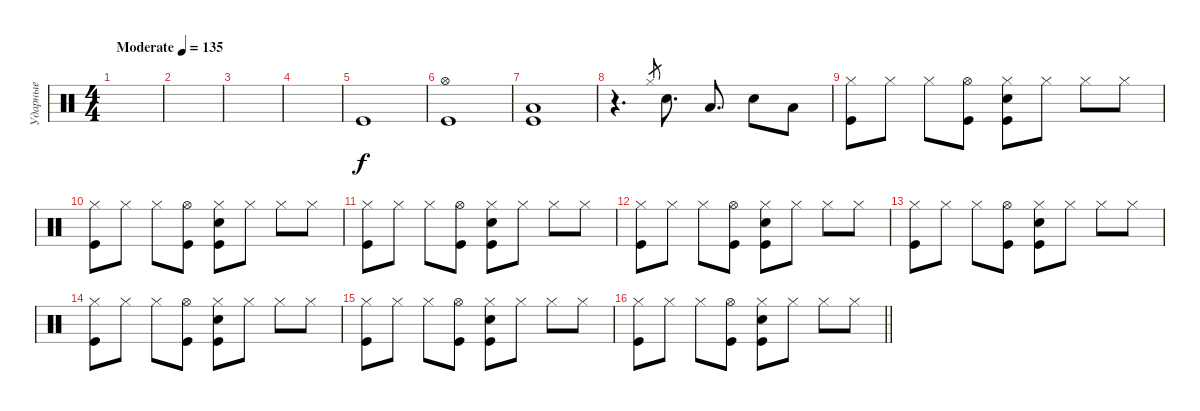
\track ("Ударные" "Ударные") {instrument percussion}
\staff {score}
\articulation defaults
\ts (4 4)
\tempo (135 "Moderate")
\clef neutral
\ks c
|
|
|
|
"Kick (hit)".1 |
("Hi-Hat (open)" "Kick (hit)").1 |
("Low Tom (hit)" "Kick (hit)").1 |
r.4{d} "Hi-Hat (closed)"{h}.8{gr} "Snare (hit) 2".8{d} "Low Tom (hit)".8{d} "Snare (hit) 2".8 "Low Tom (hit)".8 |
("Hi-Hat (closed)" "Kick (hit)").8 "Hi-Hat (closed)".8 "Hi-Hat (closed)".8 ("Hi-Hat (open)" "Kick (hit)").8 ("Hi-Hat (closed)" "Snare (hit) 2" "Kick (hit)").8 "Hi-Hat (closed)".8 "Hi-Hat (closed)".8 "Hi-Hat (closed)".8 |
("Hi-Hat (closed)" "Kick (hit)").8 "Hi-Hat (closed)".8 "Hi-Hat (closed)".8 ("Hi-Hat (open)" "Kick (hit)").8 ("Hi-Hat (closed)" "Snare (hit) 2" "Kick (hit)").8 "Hi-Hat (closed)".8 "Hi-Hat (closed)".8 "Hi-Hat (closed)".8 |
("Hi-Hat (closed)" "Kick (hit)").8 "Hi-Hat (closed)".8 "Hi-Hat (closed)".8 ("Hi-Hat (open)" "Kick (hit)").8 ("Hi-Hat (closed)" "Snare (hit) 2" "Kick (hit)").8 "Hi-Hat (closed)".8 "Hi-Hat (closed)".8 "Hi-Hat (closed)".8 |
("Hi-Hat (closed)" "Kick (hit)").8 "Hi-Hat (closed)".8 "Hi-Hat (closed)".8 ("Hi-Hat (open)" "Kick (hit)").8 ("Hi-Hat (closed)" "Snare (hit) 2" "Kick (hit)").8 "Hi-Hat (closed)".8 "Hi-Hat (closed)".8 "Hi-Hat (closed)".8 |
("Hi-Hat (closed)" "Kick (hit)").8 "Hi-Hat (closed)".8 "Hi-Hat (closed)".8 ("Hi-Hat (open)" "Kick (hit)").8 ("Hi-Hat (closed)" "Snare (hit) 2" "Kick (hit)").8 "Hi-Hat (closed)".8 "Hi-Hat (closed)".8 "Hi-Hat (closed)".8 |
("Hi-Hat (closed)" "Kick (hit)").8 "Hi-Hat (closed)".8 "Hi-Hat (closed)".8 ("Hi-Hat (open)" "Kick (hit)").8 ("Hi-Hat (closed)" "Snare (hit) 2" "Kick (hit)").8 "Hi-Hat (closed)".8 "Hi-Hat (closed)".8 "Hi-Hat (closed)".8 |
("Hi-Hat (closed)" "Kick (hit)").8 "Hi-Hat (closed)".8 "Hi-Hat (closed)".8 ("Hi-Hat (open)" "Kick (hit)").8 ("Hi-Hat (closed)" "Snare (hit) 2" "Kick (hit)").8 "Hi-Hat (closed)".8 "Hi-Hat (closed)".8 "Hi-Hat (closed)".8 |
\barLineRight lightlight
("Hi-Hat (closed)" "Kick (hit)").8 "Hi-Hat (closed)".8 "Hi-Hat (closed)".8 ("Hi-Hat (open)" "Kick (hit)").8 ("Hi-Hat (closed)" "Snare (hit) 2" "Kick (hit)").8 "Hi-Hat (closed)".8 "Hi-Hat (closed)".8 "Hi-Hat (closed)".8
